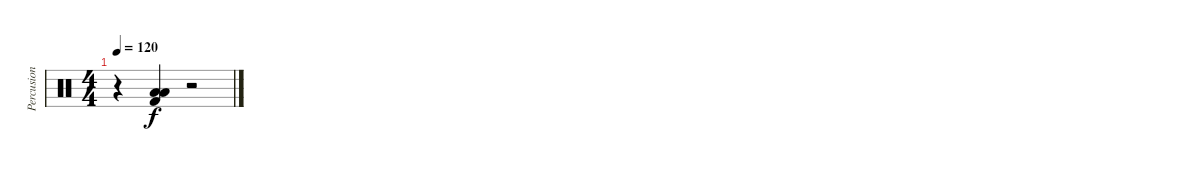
\track ("Percusion" "Percusion") {instrument percussion}
\staff {score}
\articulation defaults
\ts (4 4)
\tempo 120
\clef neutral
\ks c
r.4{dy fff} ("Low Tom (hit)" "Low Tom (hit)" "Kick (hit) 2").4{dy f} r.2
